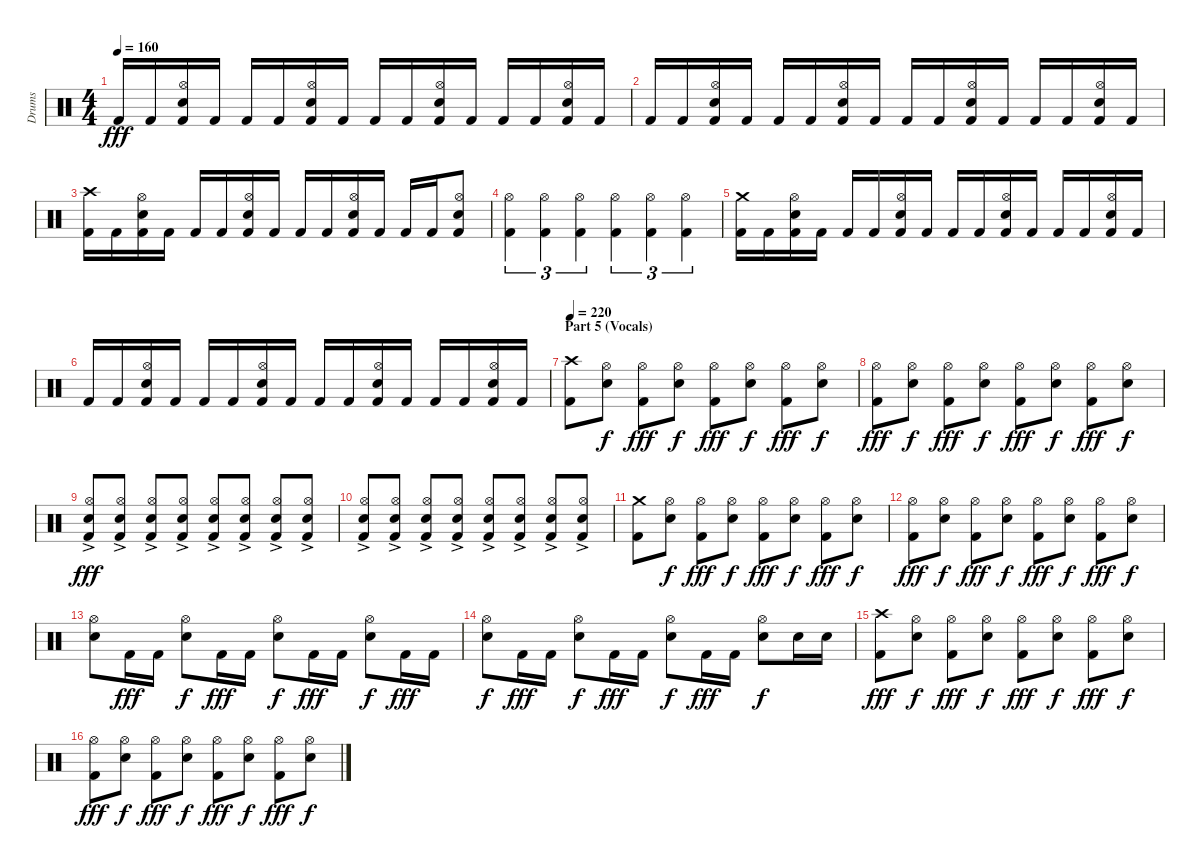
\track ("Drums" "Drums") {instrument percussion}
\staff {score}
\articulation defaults
\ts (4 4)
\tempo 160
\clef neutral
\ks c "Kick (hit) 2".16{dy fff} "Kick (hit) 2".16
("Hi-Hat (open)" "Electric Snare (hit)" "Kick (hit) 2").16 "Kick (hit) 2".16 "Kick (hit) 2".16 "Kick (hit) 2".16 ("Hi-Hat (open)" "Electric Snare (hit)" "Kick (hit) 2").16 "Kick (hit) 2".16 "Kick (hit) 2".16 "Kick (hit) 2".16 ("Hi-Hat (open)" "Electric Snare (hit)" "Kick (hit) 2").16 "Kick (hit) 2".16 "Kick (hit) 2".16 "Kick (hit) 2".16 ("Hi-Hat (open)" "Electric Snare (hit)" "Kick (hit) 2").16 "Kick (hit) 2".16 |
"Kick (hit) 2".16 "Kick (hit) 2".16 ("Hi-Hat (open)" "Electric Snare (hit)" "Kick (hit) 2").16 "Kick (hit) 2".16 "Kick (hit) 2".16 "Kick (hit) 2".16 ("Hi-Hat (open)" "Electric Snare (hit)" "Kick (hit) 2").16 "Kick (hit) 2".16 "Kick (hit) 2".16 "Kick (hit) 2".16 ("Hi-Hat (open)" "Electric Snare (hit)" "Kick (hit) 2").16 "Kick (hit) 2".16 "Kick (hit) 2".16 "Kick (hit) 2".16 ("Hi-Hat (open)" "Electric Snare (hit)" "Kick (hit) 2").16 "Kick (hit) 2".16 |
("Crash high (hit)" "Kick (hit) 2").16 "Kick (hit) 2".16 ("Hi-Hat (open)" "Electric Snare (hit)" "Kick (hit) 2").16 "Kick (hit) 2".16 "Kick (hit) 2".16 "Kick (hit) 2".16 ("Hi-Hat (open)" "Electric Snare (hit)" "Kick (hit) 2").16 "Kick (hit) 2".16 "Kick (hit) 2".16 "Kick (hit) 2".16 ("Hi-Hat (open)" "Electric Snare (hit)" "Kick (hit) 2").16 "Kick (hit) 2".16 "Kick (hit) 2".16 "Kick (hit) 2".16 ("Hi-Hat (open)" "Electric Snare (hit)" "Kick (hit) 2").8 |
("Hi-Hat (open)" "Kick (hit) 2").4{tu (3 2)} ("Hi-Hat (open)" "Kick (hit) 2").4{tu (3 2)} ("Hi-Hat (open)" "Kick (hit) 2").4{tu (3 2)} ("Hi-Hat (open)" "Kick (hit) 2").4{tu (3 2)} ("Hi-Hat (open)" "Kick (hit) 2").4{tu (3 2)} ("Hi-Hat (open)" "Kick (hit) 2").4{tu (3 2)} |
("Crash medium (hit)" "Kick (hit) 2").16 "Kick (hit) 2".16 ("Hi-Hat (open)" "Electric Snare (hit)" "Kick (hit) 2").16 "Kick (hit) 2".16 "Kick (hit) 2".16 "Kick (hit) 2".16 ("Hi-Hat (open)" "Electric Snare (hit)" "Kick (hit) 2").16 "Kick (hit) 2".16 "Kick (hit) 2".16 "Kick (hit) 2".16 ("Hi-Hat (open)" "Electric Snare (hit)" "Kick (hit) 2").16 "Kick (hit) 2".16 "Kick (hit) 2".16 "Kick (hit) 2".16 ("Hi-Hat (open)" "Electric Snare (hit)" "Kick (hit) 2").16 "Kick (hit) 2".16 |
"Kick (hit) 2".16 "Kick (hit) 2".16 ("Hi-Hat (open)" "Electric Snare (hit)" "Kick (hit) 2").16 "Kick (hit) 2".16 "Kick (hit) 2".16 "Kick (hit) 2".16 ("Hi-Hat (open)" "Electric Snare (hit)" "Kick (hit) 2").16 "Kick (hit) 2".16 "Kick (hit) 2".16 "Kick (hit) 2".16 ("Hi-Hat (open)" "Electric Snare (hit)" "Kick (hit) 2").16 "Kick (hit) 2".16 "Kick (hit) 2".16 "Kick (hit) 2".16 ("Hi-Hat (open)" "Electric Snare (hit)" "Kick (hit) 2").16 "Kick (hit) 2".16 |
\section ("" "Part 5 (Vocals)")
\tempo 220
("Crash high (hit)" "Kick (hit) 2").8 ("Hi-Hat (open)" "Electric Snare (hit)").8{dy f} ("Hi-Hat (open)" "Kick (hit) 2").8{dy fff} ("Hi-Hat (open)" "Electric Snare (hit)").8{dy f} ("Hi-Hat (open)" "Kick (hit) 2").8{dy fff} ("Hi-Hat (open)" "Electric Snare (hit)").8{dy f} ("Hi-Hat (open)" "Kick (hit) 2").8{dy fff} ("Hi-Hat (open)" "Electric Snare (hit)").8{dy f} |
("Hi-Hat (open)" "Kick (hit) 2").8{dy fff} ("Hi-Hat (open)" "Electric Snare (hit)").8{dy f} ("Hi-Hat (open)" "Kick (hit) 2").8{dy fff} ("Hi-Hat (open)" "Electric Snare (hit)").8{dy f} ("Hi-Hat (open)" "Kick (hit) 2").8{dy fff} ("Hi-Hat (open)" "Electric Snare (hit)").8{dy f} ("Hi-Hat (open)" "Kick (hit) 2").8{dy fff} ("Hi-Hat (open)" "Electric Snare (hit)").8{dy f} |
("Hi-Hat (open)" "Electric Snare (hit)"{ac} "Kick (hit) 2").8{dy fff} ("Hi-Hat (open)" "Electric Snare (hit)"{ac} "Kick (hit) 2").8 ("Hi-Hat (open)" "Electric Snare (hit)"{ac} "Kick (hit) 2").8 ("Hi-Hat (open)" "Electric Snare (hit)"{ac} "Kick (hit) 2").8 ("Hi-Hat (open)" "Electric Snare (hit)"{ac} "Kick (hit) 2").8 ("Hi-Hat (open)" "Electric Snare (hit)"{ac} "Kick (hit) 2").8 ("Hi-Hat (open)" "Electric Snare (hit)"{ac} "Kick (hit) 2").8 ("Hi-Hat (open)" "Electric Snare (hit)"{ac} "Kick (hit) 2").8 |
("Hi-Hat (open)" "Electric Snare (hit)"{ac} "Kick (hit) 2").8 ("Hi-Hat (open)" "Electric Snare (hit)"{ac} "Kick (hit) 2").8 ("Hi-Hat (open)" "Electric Snare (hit)"{ac} "Kick (hit) 2").8 ("Hi-Hat (open)" "Electric Snare (hit)"{ac} "Kick (hit) 2").8 ("Hi-Hat (open)" "Electric Snare (hit)"{ac} "Kick (hit) 2").8 ("Hi-Hat (open)" "Electric Snare (hit)"{ac} "Kick (hit) 2").8 ("Hi-Hat (open)" "Electric Snare (hit)"{ac} "Kick (hit) 2").8 ("Hi-Hat (open)" "Electric Snare (hit)"{ac} "Kick (hit) 2").8 |
("Crash medium (hit)" "Kick (hit) 2").8 ("Hi-Hat (open)" "Electric Snare (hit)").8{dy f} ("Hi-Hat (open)" "Kick (hit) 2").8{dy fff} ("Hi-Hat (open)" "Electric Snare (hit)").8{dy f} ("Hi-Hat (open)" "Kick (hit) 2").8{dy fff} ("Hi-Hat (open)" "Electric Snare (hit)").8{dy f} ("Hi-Hat (open)" "Kick (hit) 2").8{dy fff} ("Hi-Hat (open)" "Electric Snare (hit)").8{dy f} |
("Hi-Hat (open)" "Kick (hit) 2").8{dy fff} ("Hi-Hat (open)" "Electric Snare (hit)").8{dy f} ("Hi-Hat (open)" "Kick (hit) 2").8{dy fff} ("Hi-Hat (open)" "Electric Snare (hit)").8{dy f} ("Hi-Hat (open)" "Kick (hit) 2").8{dy fff} ("Hi-Hat (open)" "Electric Snare (hit)").8{dy f} ("Hi-Hat (open)" "Kick (hit) 2").8{dy fff} ("Hi-Hat (open)" "Electric Snare (hit)").8{dy f} |
("Hi-Hat (open)" "Electric Snare (hit)").8 "Kick (hit) 2".16{dy fff} "Kick (hit) 2".16 ("Hi-Hat (open)" "Electric Snare (hit)").8{dy f} "Kick (hit) 2".16{dy fff} "Kick (hit) 2".16 ("Hi-Hat (open)" "Electric Snare (hit)").8{dy f} "Kick (hit) 2".16{dy fff} "Kick (hit) 2".16 ("Hi-Hat (open)" "Electric Snare (hit)").8{dy f} "Kick (hit) 2".16{dy fff} "Kick (hit) 2".16 |
("Hi-Hat (open)" "Electric Snare (hit)").8{dy f} "Kick (hit) 2".16{dy fff} "Kick (hit) 2".16 ("Hi-Hat (open)" "Electric Snare (hit)").8{dy f} "Kick (hit) 2".16{dy fff} "Kick (hit) 2".16 ("Hi-Hat (open)" "Electric Snare (hit)").8{dy f} "Kick (hit) 2".16{dy fff} "Kick (hit) 2".16 ("Hi-Hat (open)" "Electric Snare (hit)").8{dy f} "Electric Snare (hit)".16 "Electric Snare (hit)".16 |
("Crash high (hit)" "Kick (hit) 2").8{dy fff} ("Hi-Hat (open)" "Electric Snare (hit)").8{dy f} ("Hi-Hat (open)" "Kick (hit) 2").8{dy fff} ("Hi-Hat (open)" "Electric Snare (hit)").8{dy f} ("Hi-Hat (open)" "Kick (hit) 2").8{dy fff} ("Hi-Hat (open)" "Electric Snare (hit)").8{dy f} ("Hi-Hat (open)" "Kick (hit) 2").8{dy fff} ("Hi-Hat (open)" "Electric Snare (hit)").8{dy f} |
("Hi-Hat (open)" "Kick (hit) 2").8{dy fff} ("Hi-Hat (open)" "Electric Snare (hit)").8{dy f} ("Hi-Hat (open)" "Kick (hit) 2").8{dy fff} ("Hi-Hat (open)" "Electric Snare (hit)").8{dy f} ("Hi-Hat (open)" "Kick (hit) 2").8{dy fff} ("Hi-Hat (open)" "Electric Snare (hit)").8{dy f} ("Hi-Hat (open)" "Kick (hit) 2").8{dy fff} ("Hi-Hat (open)" "Electric Snare (hit)").8{dy f}
